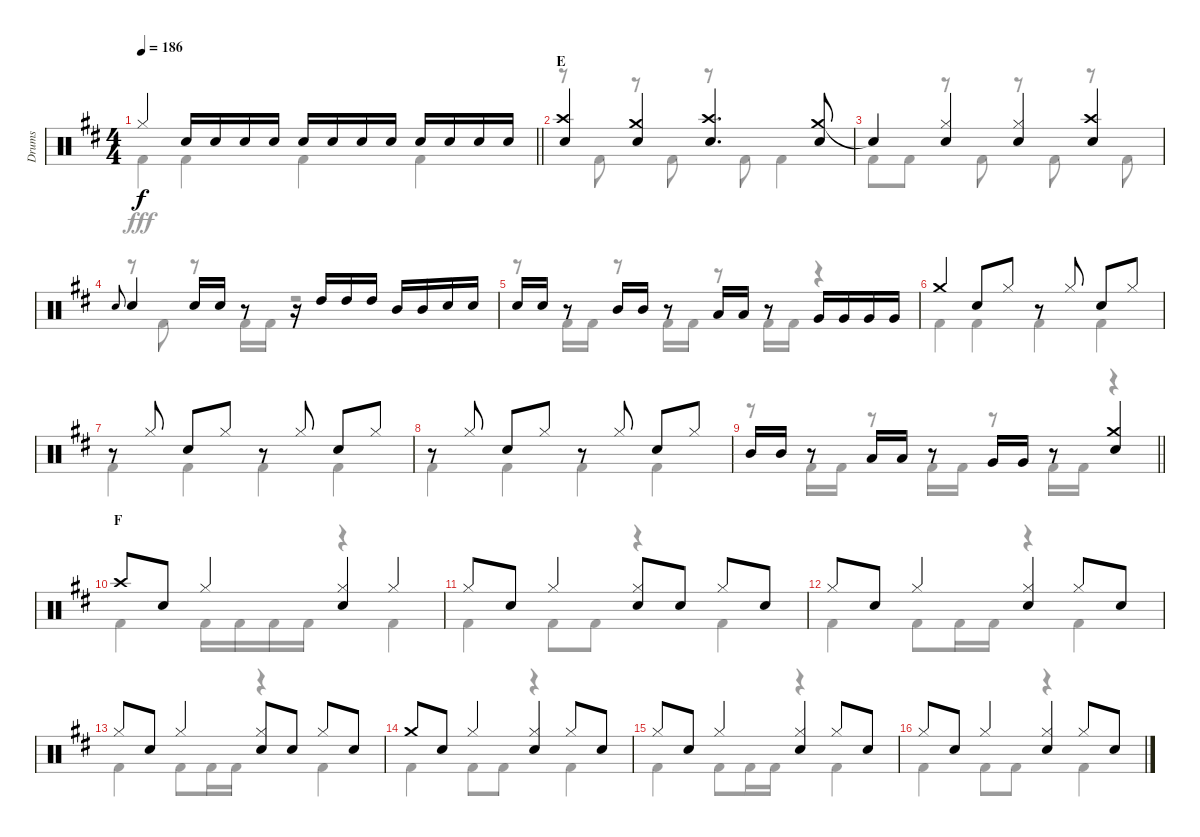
\track ("Drums" "Drums") {instrument percussion}
\staff {score}
\articulation defaults
\voice
\ts (4 4)
\tempo 186
\clef neutral
\barLineRight lightlight
\ks d "Hi-Hat (closed)".4{dy f} "Snare (hit) 2".16 "Snare (hit) 2".16 "Snare (hit) 2".16 "Snare (hit) 2".16 "Snare (hit) 2".16 "Snare (hit) 2".16 "Snare (hit) 2".16 "Snare (hit) 2".16 "Snare (hit) 2".16 "Snare (hit) 2".16 "Snare (hit) 2".16 "Snare (hit) 2".16
|
\section ("" "E")
("Crash high (hit)" "Snare (hit) 2").4 ("Crash medium (hit)" "Snare (hit) 2").4 ("Crash high (hit)" "Snare (hit) 2").4{d} ("Crash medium (hit)" "Snare (hit) 2").8 |
"Snare (hit)"{t}.4 ("Hi-Hat (closed)" "Snare (hit) 2").4 ("Hi-Hat (closed)" "Snare (hit) 2").4 ("Crash high (hit)" "Snare (hit) 2").4 |
"Snare (hit) 2".8{gr onbeat} "Snare (hit) 2".4 "Snare (hit) 2".16 "Snare (hit) 2".16 r.8 r.16 "High Tom (hit)".16 "High Tom (hit)".16 "High Tom (hit)".16 "Mid Tom (hit)".16 "Mid Tom (hit)".16 "Snare (hit) 2".16 "Snare (hit) 2".16 |
"Snare (hit) 2".16 "Snare (hit) 2".16 r.8 "Mid Tom (hit)".16 "Mid Tom (hit)".16 r.8 "Low Tom (hit)".16 "Low Tom (hit)".16 r.8 "Very Low Tom (hit)".16 "Very Low Tom (hit)".16 "Very Low Tom (hit)".16 "Very Low Tom (hit)".16 |
"Crash medium (hit)".4 "Snare (hit) 2".8 "Hi-Hat (closed)".8 r.8 "Hi-Hat (closed)".8 "Snare (hit) 2".8 "Hi-Hat (closed)".8 |
r.8 "Hi-Hat (closed)".8 "Snare (hit) 2".8 "Hi-Hat (closed)".8 r.8 "Hi-Hat (closed)".8 "Snare (hit) 2".8 "Hi-Hat (closed)".8 |
r.8 "Hi-Hat (closed)".8 "Snare (hit) 2".8 "Hi-Hat (closed)".8 r.8 "Hi-Hat (closed)".8 "Snare (hit) 2".8 "Hi-Hat (closed)".8 |
\barLineRight lightlight "Mid Tom (hit)".16 "Mid Tom (hit)".16
r.8 "Low Tom (hit)".16 "Low Tom (hit)".16 r.8 "Very Low Tom (hit)".16 "Very Low Tom (hit)".16 r.8 ("Crash medium (hit)" "Snare (hit) 2").4 |
\section ("" "F")
"Crash high (hit)".8 "Snare (hit) 2".8 "Hi-Hat (closed)".4 ("Hi-Hat (closed)" "Snare (hit) 2").4 "Hi-Hat (closed)".4 |
"Hi-Hat (closed)".8 "Snare (hit) 2".8 "Hi-Hat (closed)".4 ("Hi-Hat (closed)" "Snare (hit) 2").8 "Snare (hit) 2".8 "Hi-Hat (closed)".8 "Snare (hit) 2".8 |
"Hi-Hat (closed)".8 "Snare (hit) 2".8 "Hi-Hat (closed)".4 ("Hi-Hat (closed)" "Snare (hit) 2").4 "Hi-Hat (closed)".8 "Snare (hit) 2".8 |
"Hi-Hat (closed)".8 "Snare (hit) 2".8 "Hi-Hat (closed)".4 ("Hi-Hat (closed)" "Snare (hit) 2").8 "Snare (hit) 2".8 "Hi-Hat (closed)".8 "Snare (hit) 2".8 |
"Crash medium (hit)".8 "Snare (hit) 2".8 "Hi-Hat (closed)".4 ("Hi-Hat (closed)" "Snare (hit) 2").4 "Hi-Hat (closed)".8 "Snare (hit) 2".8 |
"Hi-Hat (closed)".8 "Snare (hit) 2".8 "Hi-Hat (closed)".4 ("Hi-Hat (closed)" "Snare (hit) 2").4 "Hi-Hat (closed)".8 "Snare (hit) 2".8 |
"Hi-Hat (closed)".8 "Snare (hit) 2".8 "Hi-Hat (closed)".4 ("Hi-Hat (closed)" "Snare (hit) 2").4 "Hi-Hat (closed)".8 "Snare (hit) 2".8
\voice
\clef neutral
\ottava regular
\simile none
\barLineRight lightlight
\ks d "Kick (hit) 2".4{dy fff} "Kick (hit) 2".4 "Kick (hit) 2".4 "Kick (hit) 2".4
|
r.8 "Kick (hit) 2".8 r.8 "Kick (hit) 2".8 r.8 "Kick (hit) 2".8 "Kick (hit) 2".4 |
"Kick (hit) 2".8 "Kick (hit) 2".8 r.8 "Kick (hit) 2".8 r.8 "Kick (hit) 2".8 r.8 "Kick (hit) 2".8 |
r.8 "Kick (hit) 2".8 r.8 "Kick (hit) 2".16 "Kick (hit) 2".16 r.2 |
r.8 "Kick (hit) 2".16 "Kick (hit) 2".16 r.8 "Kick (hit) 2".16 "Kick (hit) 2".16 r.8 "Kick (hit) 2".16 "Kick (hit) 2".16 r.4 |
"Kick (hit) 2".4 "Kick (hit) 2".4 "Kick (hit) 2".4 "Kick (hit) 2".4 |
"Kick (hit) 2".4 "Kick (hit) 2".4 "Kick (hit) 2".4 "Kick (hit) 2".4 |
"Kick (hit) 2".4 "Kick (hit) 2".4 "Kick (hit) 2".4 "Kick (hit) 2".4 |
\barLineRight lightlight
r.8 "Kick (hit) 2".16 "Kick (hit) 2".16 r.8 "Kick (hit) 2".16 "Kick (hit) 2".16 r.8 "Kick (hit) 2".16 "Kick (hit) 2".16 r.4 |
"Kick (hit) 2".4 "Kick (hit) 2".16 "Kick (hit) 2".16 "Kick (hit) 2".16 "Kick (hit) 2".16 r.4 "Kick (hit) 2".4 |
"Kick (hit) 2".4 "Kick (hit) 2".8 "Kick (hit) 2".8 r.4 "Kick (hit) 2".4 |
"Kick (hit) 2".4 "Kick (hit) 2".8 "Kick (hit) 2".16 "Kick (hit) 2".16 r.4 "Kick (hit) 2".4 |
"Kick (hit) 2".4 "Kick (hit) 2".8 "Kick (hit) 2".16 "Kick (hit) 2".16 r.4 "Kick (hit) 2".4 |
"Kick (hit) 2".4 "Kick (hit) 2".8 "Kick (hit) 2".8 r.4 "Kick (hit) 2".4 |
"Kick (hit) 2".4 "Kick (hit) 2".8 "Kick (hit) 2".16 "Kick (hit) 2".16 r.4 "Kick (hit) 2".4 |
"Kick (hit) 2".4 "Kick (hit) 2".8 "Kick (hit) 2".8 r.4 "Kick (hit) 2".4
